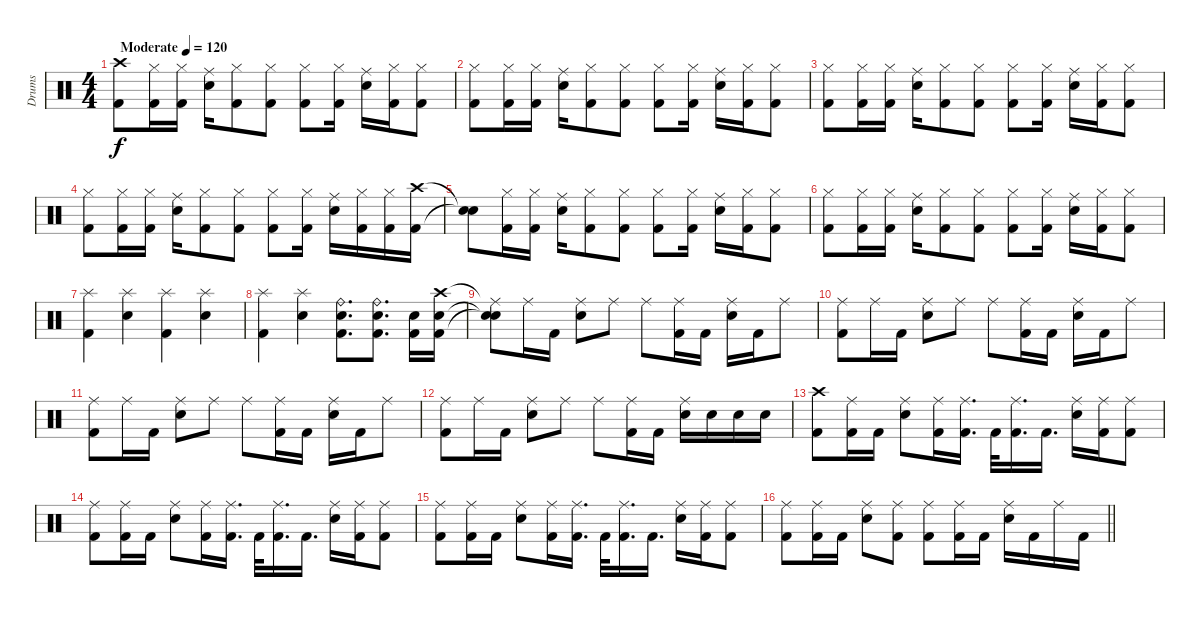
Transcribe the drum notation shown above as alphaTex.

\track ("Drums" "Drums") {instrument percussion}
\staff {score}
\articulation defaults
\ts (4 4)
\tempo (120 "Moderate")
\clef neutral
\ks c
("Crash high (hit)" "Kick (hit) 2").8{dy f} ("Hi-Hat (closed)" "Kick (hit) 2").16 ("Hi-Hat (closed)" "Kick (hit) 2").16 ("Ride (middle)" "Snare (hit) 2").16 ("Hi-Hat (closed)" "Kick (hit) 2").8 ("Hi-Hat (closed)" "Kick (hit) 2").8 ("Hi-Hat (closed)" "Kick (hit) 2").8 ("Hi-Hat (closed)" "Kick (hit) 2").16 ("Ride (middle)" "Snare (hit) 2").16 ("Hi-Hat (closed)" "Kick (hit) 2").16 ("Hi-Hat (closed)" "Kick (hit) 2").8 |
("Hi-Hat (closed)" "Kick (hit) 2").8 ("Hi-Hat (closed)" "Kick (hit) 2").16 ("Hi-Hat (closed)" "Kick (hit) 2").16 ("Ride (middle)" "Snare (hit) 2").16 ("Hi-Hat (closed)" "Kick (hit) 2").8 ("Hi-Hat (closed)" "Kick (hit) 2").8 ("Hi-Hat (closed)" "Kick (hit) 2").8 ("Hi-Hat (closed)" "Kick (hit) 2").16 ("Ride (middle)" "Snare (hit) 2").16 ("Hi-Hat (closed)" "Kick (hit) 2").16 ("Hi-Hat (closed)" "Kick (hit) 2").8 |
("Hi-Hat (closed)" "Kick (hit) 2").8 ("Hi-Hat (closed)" "Kick (hit) 2").16 ("Hi-Hat (closed)" "Kick (hit) 2").16 ("Ride (middle)" "Snare (hit) 2").16 ("Hi-Hat (closed)" "Kick (hit) 2").8 ("Hi-Hat (closed)" "Kick (hit) 2").8 ("Hi-Hat (closed)" "Kick (hit) 2").8 ("Hi-Hat (closed)" "Kick (hit) 2").16 ("Ride (middle)" "Snare (hit) 2").16 ("Hi-Hat (closed)" "Kick (hit) 2").16 ("Hi-Hat (closed)" "Kick (hit) 2").8 |
("Hi-Hat (closed)" "Kick (hit) 2").8 ("Hi-Hat (closed)" "Kick (hit) 2").16 ("Hi-Hat (closed)" "Kick (hit) 2").16 ("Ride (middle)" "Snare (hit) 2").16 ("Hi-Hat (closed)" "Kick (hit) 2").8 ("Hi-Hat (closed)" "Kick (hit) 2").8 ("Hi-Hat (closed)" "Kick (hit) 2").8 ("Hi-Hat (closed)" "Kick (hit) 2").16 ("Ride (middle)" "Snare (hit) 2").16 ("Hi-Hat (closed)" "Kick (hit) 2").16 ("Hi-Hat (closed)" "Kick (hit) 2").16 ("Crash high (hit)" "Kick (hit) 2").16 |
("Snare (hit)"{t} "Snare (hit)"{t}).8 ("Hi-Hat (closed)" "Kick (hit) 2").16 ("Hi-Hat (closed)" "Kick (hit) 2").16 ("Ride (middle)" "Snare (hit) 2").16 ("Hi-Hat (closed)" "Kick (hit) 2").8 ("Hi-Hat (closed)" "Kick (hit) 2").8 ("Hi-Hat (closed)" "Kick (hit) 2").8 ("Hi-Hat (closed)" "Kick (hit) 2").16 ("Ride (middle)" "Snare (hit) 2").16 ("Hi-Hat (closed)" "Kick (hit) 2").16 ("Hi-Hat (closed)" "Kick (hit) 2").8 |
("Hi-Hat (closed)" "Kick (hit) 2").8 ("Hi-Hat (closed)" "Kick (hit) 2").16 ("Hi-Hat (closed)" "Kick (hit) 2").16 ("Ride (middle)" "Snare (hit) 2").16 ("Hi-Hat (closed)" "Kick (hit) 2").8 ("Hi-Hat (closed)" "Kick (hit) 2").8 ("Hi-Hat (closed)" "Kick (hit) 2").8 ("Hi-Hat (closed)" "Kick (hit) 2").16 ("Ride (middle)" "Snare (hit) 2").16 ("Hi-Hat (closed)" "Kick (hit) 2").16 ("Hi-Hat (closed)" "Kick (hit) 2").8 |
("Splash (hit)" "Kick (hit) 2").4 ("Splash (hit)" "Snare (hit) 2").4 ("Splash (hit)" "Kick (hit) 2").4 ("Splash (hit)" "Snare (hit) 2").4 |
("Splash (hit)" "Kick (hit) 2").4 ("Splash (hit)" "Snare (hit) 2").4 ("Ride (bell)" "Snare (hit) 2" "Kick (hit) 2").8{d} ("Ride (bell)" "Snare (hit) 2" "Kick (hit) 2").8{d} ("Snare (hit) 2" "Kick (hit) 2").16 ("Crash high (hit)" "Snare (hit) 2" "Kick (hit) 2").16 |
("Ride (middle)"{t} "Snare (hit)"{t} "Snare (hit)"{t}).8 "Ride (middle)".16 "Kick (hit) 2".16 ("Ride (middle)" "Snare (hit) 2").8 "Ride (middle)".8 "Ride (middle)".8 ("Ride (middle)" "Kick (hit) 2").16 "Kick (hit) 2".16 ("Ride (middle)" "Snare (hit) 2").16 "Kick (hit) 2".16 "Ride (middle)".8 |
("Ride (middle)" "Kick (hit) 2").8 "Ride (middle)".16 "Kick (hit) 2".16 ("Ride (middle)" "Snare (hit) 2").8 "Ride (middle)".8 "Ride (middle)".8 ("Ride (middle)" "Kick (hit) 2").16 "Kick (hit) 2".16 ("Ride (middle)" "Snare (hit) 2").16 "Kick (hit) 2".16 "Ride (middle)".8 |
("Ride (middle)" "Kick (hit) 2").8 "Ride (middle)".16 "Kick (hit) 2".16 ("Ride (middle)" "Snare (hit) 2").8 "Ride (middle)".8 "Ride (middle)".8 ("Ride (middle)" "Kick (hit) 2").16 "Kick (hit) 2".16 ("Ride (middle)" "Snare (hit) 2").16 "Kick (hit) 2".16 "Ride (middle)".8 |
("Ride (middle)" "Kick (hit) 2").8 "Ride (middle)".16 "Kick (hit) 2".16 ("Ride (middle)" "Snare (hit) 2").8 "Ride (middle)".8 "Ride (middle)".8 ("Ride (middle)" "Kick (hit) 2").16 "Kick (hit) 2".16 ("Ride (middle)" "Snare (hit) 2").16 "Electric Snare (hit)".16 "Electric Snare (hit)".16 "Electric Snare (hit)".16 |
("Crash high (hit)" "Kick (hit) 2").8 ("Ride (middle)" "Kick (hit) 2").16 "Kick (hit) 2".16 ("Ride (middle)" "Snare (hit) 2").8 ("Ride (middle)" "Kick (hit) 2").16 ("Ride (middle)" "Kick (hit) 2").16{d} "Kick (hit) 2".32 ("Ride (middle)" "Kick (hit) 2").16{d} "Kick (hit) 2".16{d} ("Ride (middle)" "Snare (hit) 2").16 ("Ride (middle)" "Kick (hit) 2").16 ("Ride (middle)" "Kick (hit) 2").8 |
("Ride (middle)" "Kick (hit) 2").8 ("Ride (middle)" "Kick (hit) 2").16 "Kick (hit) 2".16 ("Ride (middle)" "Snare (hit) 2").8 ("Ride (middle)" "Kick (hit) 2").16 ("Ride (middle)" "Kick (hit) 2").16{d} "Kick (hit) 2".32 ("Ride (middle)" "Kick (hit) 2").16{d} "Kick (hit) 2".16{d} ("Ride (middle)" "Snare (hit) 2").16 ("Ride (middle)" "Kick (hit) 2").16 ("Ride (middle)" "Kick (hit) 2").8 |
("Ride (middle)" "Kick (hit) 2").8 ("Ride (middle)" "Kick (hit) 2").16 "Kick (hit) 2".16 ("Ride (middle)" "Snare (hit) 2").8 ("Ride (middle)" "Kick (hit) 2").16 ("Ride (middle)" "Kick (hit) 2").16{d} "Kick (hit) 2".32 ("Ride (middle)" "Kick (hit) 2").16{d} "Kick (hit) 2".16{d} ("Ride (middle)" "Snare (hit) 2").16 ("Ride (middle)" "Kick (hit) 2").16 ("Ride (middle)" "Kick (hit) 2").8 |
\barLineRight lightlight
("Ride (middle)" "Kick (hit) 2").8 ("Ride (middle)" "Kick (hit) 2").16 "Kick (hit) 2".16 ("Ride (middle)" "Snare (hit) 2").8 ("Ride (middle)" "Kick (hit) 2").8 ("Ride (middle)" "Kick (hit) 2").8 ("Ride (middle)" "Kick (hit) 2").16 "Kick (hit) 2".16 ("Ride (middle)" "Snare (hit) 2").16 "Kick (hit) 2".16 "Ride (middle)".16 "Kick (hit) 2".16
